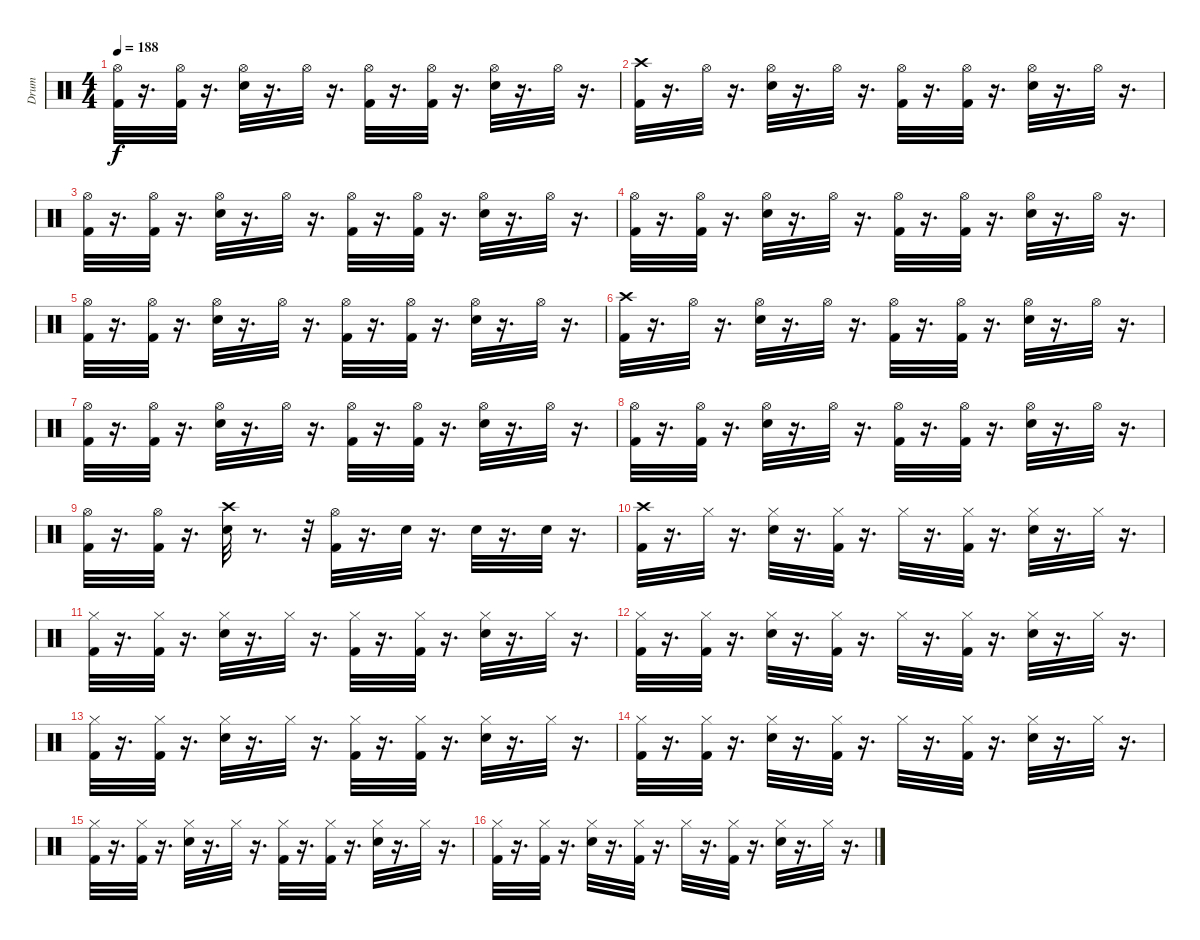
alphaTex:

\track ("Drum" "Drum") {instrument percussion}
\staff {score}
\articulation defaults
\ts (4 4)
\tempo 188
\clef neutral
\ks c
("Hi-Hat (open)" "Kick (hit) 2").32{dy f} r.16{d} ("Hi-Hat (open)" "Kick (hit) 2").32 r.16{d} ("Hi-Hat (open)" "Snare (hit) 2").32 r.16{d} "Hi-Hat (open)".32 r.16{d} ("Hi-Hat (open)" "Kick (hit) 2").32 r.16{d} ("Hi-Hat (open)" "Kick (hit) 2").32 r.16{d} ("Hi-Hat (open)" "Snare (hit) 2").32 r.16{d} "Hi-Hat (open)".32 r.16{d} |
("Crash high (hit)" "Kick (hit) 2").32 r.16{d} "Hi-Hat (open)".32 r.16{d} ("Hi-Hat (open)" "Snare (hit) 2").32 r.16{d} "Hi-Hat (open)".32 r.16{d} ("Hi-Hat (open)" "Kick (hit) 2").32 r.16{d} ("Hi-Hat (open)" "Kick (hit) 2").32 r.16{d} ("Hi-Hat (open)" "Snare (hit) 2").32 r.16{d} "Hi-Hat (open)".32 r.16{d} |
("Hi-Hat (open)" "Kick (hit) 2").32 r.16{d} ("Hi-Hat (open)" "Kick (hit) 2").32 r.16{d} ("Hi-Hat (open)" "Snare (hit) 2").32 r.16{d} "Hi-Hat (open)".32 r.16{d} ("Hi-Hat (open)" "Kick (hit) 2").32 r.16{d} ("Hi-Hat (open)" "Kick (hit) 2").32 r.16{d} ("Hi-Hat (open)" "Snare (hit) 2").32 r.16{d} "Hi-Hat (open)".32 r.16{d} |
("Hi-Hat (open)" "Kick (hit) 2").32 r.16{d} ("Hi-Hat (open)" "Kick (hit) 2").32 r.16{d} ("Hi-Hat (open)" "Snare (hit) 2").32 r.16{d} "Hi-Hat (open)".32 r.16{d} ("Hi-Hat (open)" "Kick (hit) 2").32 r.16{d} ("Hi-Hat (open)" "Kick (hit) 2").32 r.16{d} ("Hi-Hat (open)" "Snare (hit) 2").32 r.16{d} "Hi-Hat (open)".32 r.16{d} |
("Hi-Hat (open)" "Kick (hit) 2").32 r.16{d} ("Hi-Hat (open)" "Kick (hit) 2").32 r.16{d} ("Hi-Hat (open)" "Snare (hit) 2").32 r.16{d} "Hi-Hat (open)".32 r.16{d} ("Hi-Hat (open)" "Kick (hit) 2").32 r.16{d} ("Hi-Hat (open)" "Kick (hit) 2").32 r.16{d} ("Hi-Hat (open)" "Snare (hit) 2").32 r.16{d} "Hi-Hat (open)".32 r.16{d} |
("Crash high (hit)" "Kick (hit) 2").32 r.16{d} "Hi-Hat (open)".32 r.16{d} ("Hi-Hat (open)" "Snare (hit) 2").32 r.16{d} "Hi-Hat (open)".32 r.16{d} ("Hi-Hat (open)" "Kick (hit) 2").32 r.16{d} ("Hi-Hat (open)" "Kick (hit) 2").32 r.16{d} ("Hi-Hat (open)" "Snare (hit) 2").32 r.16{d} "Hi-Hat (open)".32 r.16{d} |
("Hi-Hat (open)" "Kick (hit) 2").32 r.16{d} ("Hi-Hat (open)" "Kick (hit) 2").32 r.16{d} ("Hi-Hat (open)" "Snare (hit) 2").32 r.16{d} "Hi-Hat (open)".32 r.16{d} ("Hi-Hat (open)" "Kick (hit) 2").32 r.16{d} ("Hi-Hat (open)" "Kick (hit) 2").32 r.16{d} ("Hi-Hat (open)" "Snare (hit) 2").32 r.16{d} "Hi-Hat (open)".32 r.16{d} |
("Hi-Hat (open)" "Kick (hit) 2").32 r.16{d} ("Hi-Hat (open)" "Kick (hit) 2").32 r.16{d} ("Hi-Hat (open)" "Snare (hit) 2").32 r.16{d} "Hi-Hat (open)".32 r.16{d} ("Hi-Hat (open)" "Kick (hit) 2").32 r.16{d} ("Hi-Hat (open)" "Kick (hit) 2").32 r.16{d} ("Hi-Hat (open)" "Snare (hit) 2").32 r.16{d} "Hi-Hat (open)".32 r.16{d} |
("Hi-Hat (open)" "Kick (hit) 2").32 r.16{d} ("Hi-Hat (open)" "Kick (hit) 2").32 r.16{d} ("Crash high (hit)" "Snare (hit) 2").32 r.8{d} r.32 ("Hi-Hat (open)" "Kick (hit) 2").32 r.16{d} "Snare (hit) 2".32 r.16{d} "Snare (hit) 2".32 r.16{d} "Snare (hit) 2".32 r.16{d} |
("Kick (hit) 2" "Crash high (hit)").32 r.16{d} "Hi-Hat (closed)".32 r.16{d} ("Hi-Hat (closed)" "Snare (hit) 2").32 r.16{d} ("Hi-Hat (closed)" "Kick (hit) 2").32 r.16{d} "Hi-Hat (closed)".32 r.16{d} ("Hi-Hat (closed)" "Kick (hit) 2").32 r.16{d} ("Hi-Hat (closed)" "Snare (hit) 2").32 r.16{d} "Hi-Hat (closed)".32 r.16{d} |
("Hi-Hat (closed)" "Kick (hit) 2").32 r.16{d} ("Hi-Hat (closed)" "Kick (hit) 2").32 r.16{d} ("Hi-Hat (closed)" "Snare (hit) 2").32 r.16{d} "Hi-Hat (closed)".32 r.16{d} ("Hi-Hat (closed)" "Kick (hit) 2").32 r.16{d} ("Hi-Hat (closed)" "Kick (hit) 2").32 r.16{d} ("Hi-Hat (closed)" "Snare (hit) 2").32 r.16{d} "Hi-Hat (closed)".32 r.16{d} |
("Hi-Hat (closed)" "Kick (hit) 2").32 r.16{d} ("Hi-Hat (closed)" "Kick (hit) 2").32 r.16{d} ("Hi-Hat (closed)" "Snare (hit) 2").32 r.16{d} ("Hi-Hat (closed)" "Kick (hit) 2").32 r.16{d} "Hi-Hat (closed)".32 r.16{d} ("Hi-Hat (closed)" "Kick (hit) 2").32 r.16{d} ("Hi-Hat (closed)" "Snare (hit) 2").32 r.16{d} "Hi-Hat (closed)".32 r.16{d} |
("Hi-Hat (closed)" "Kick (hit) 2").32 r.16{d} ("Hi-Hat (closed)" "Kick (hit) 2").32 r.16{d} ("Hi-Hat (closed)" "Snare (hit) 2").32 r.16{d} "Hi-Hat (closed)".32 r.16{d} ("Hi-Hat (closed)" "Kick (hit) 2").32 r.16{d} ("Hi-Hat (closed)" "Kick (hit) 2").32 r.16{d} ("Hi-Hat (closed)" "Snare (hit) 2").32 r.16{d} "Hi-Hat (closed)".32 r.16{d} |
("Hi-Hat (closed)" "Kick (hit) 2").32 r.16{d} ("Hi-Hat (closed)" "Kick (hit) 2").32 r.16{d} ("Hi-Hat (closed)" "Snare (hit) 2").32 r.16{d} ("Hi-Hat (closed)" "Kick (hit) 2").32 r.16{d} "Hi-Hat (closed)".32 r.16{d} ("Hi-Hat (closed)" "Kick (hit) 2").32 r.16{d} ("Hi-Hat (closed)" "Snare (hit) 2").32 r.16{d} "Hi-Hat (closed)".32 r.16{d} |
("Hi-Hat (closed)" "Kick (hit) 2").32 r.16{d} ("Hi-Hat (closed)" "Kick (hit) 2").32 r.16{d} ("Hi-Hat (closed)" "Snare (hit) 2").32 r.16{d} "Hi-Hat (closed)".32 r.16{d} ("Hi-Hat (closed)" "Kick (hit) 2").32 r.16{d} ("Hi-Hat (closed)" "Kick (hit) 2").32 r.16{d} ("Hi-Hat (closed)" "Snare (hit) 2").32 r.16{d} "Hi-Hat (closed)".32 r.16{d} |
("Hi-Hat (closed)" "Kick (hit) 2").32 r.16{d} ("Hi-Hat (closed)" "Kick (hit) 2").32 r.16{d} ("Hi-Hat (closed)" "Snare (hit) 2").32 r.16{d} ("Hi-Hat (closed)" "Kick (hit) 2").32 r.16{d} "Hi-Hat (closed)".32 r.16{d} ("Hi-Hat (closed)" "Kick (hit) 2").32 r.16{d} ("Hi-Hat (closed)" "Snare (hit) 2").32 r.16{d} "Hi-Hat (closed)".32 r.16{d}
